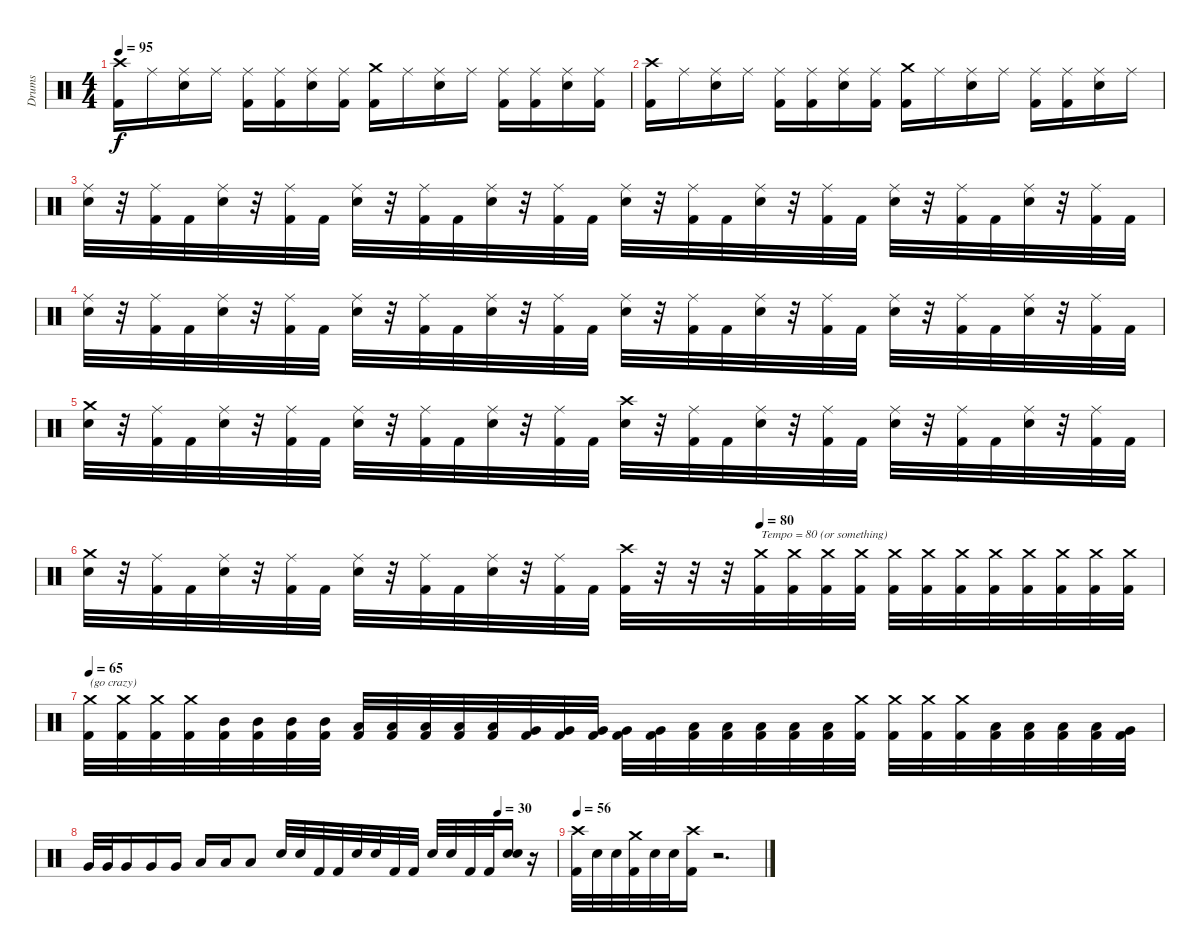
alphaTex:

\track ("Drums" "Drums") {instrument percussion}
\staff {score}
\articulation defaults
\ts (4 4)
\tempo 95
\clef neutral
\ks c
("Crash high (hit)" "Kick (hit) 2").16{dy f} "Ride (middle)".16 ("Ride (middle)" "Snare (hit) 2").16 "Ride (middle)".16 ("Ride (middle)" "Kick (hit) 2").16 ("Ride (middle)" "Kick (hit) 2").16 ("Ride (middle)" "Snare (hit) 2").16 ("Ride (middle)" "Kick (hit) 2").16 ("Crash medium (hit)" "Kick (hit) 2").16 "Ride (middle)".16 ("Ride (middle)" "Snare (hit) 2").16 "Ride (middle)".16 ("Ride (middle)" "Kick (hit) 2").16 ("Ride (middle)" "Kick (hit) 2").16 ("Ride (middle)" "Snare (hit) 2").16 ("Ride (middle)" "Kick (hit) 2").16 |
("Crash high (hit)" "Kick (hit) 2").16 "Ride (middle)".16 ("Ride (middle)" "Snare (hit) 2").16 "Ride (middle)".16 ("Ride (middle)" "Kick (hit) 2").16 ("Ride (middle)" "Kick (hit) 2").16 ("Ride (middle)" "Snare (hit) 2").16 ("Ride (middle)" "Kick (hit) 2").16 ("Crash medium (hit)" "Kick (hit) 2").16 "Ride (middle)".16 ("Ride (middle)" "Snare (hit) 2").16 "Ride (middle)".16 ("Ride (middle)" "Kick (hit) 2").16 ("Ride (middle)" "Kick (hit) 2").16 ("Ride (middle)" "Snare (hit) 2").16 "Ride (middle)".16 |
("Ride (middle)" "Snare (hit) 2").32 r.32 ("Ride (middle)" "Kick (hit) 2").32 "Kick (hit) 2".32 ("Ride (middle)" "Snare (hit) 2").32 r.32 ("Ride (middle)" "Kick (hit) 2").32 "Kick (hit) 2".32 ("Ride (middle)" "Snare (hit) 2").32 r.32 ("Ride (middle)" "Kick (hit) 2").32 "Kick (hit) 2".32 ("Ride (middle)" "Snare (hit) 2").32 r.32 ("Ride (middle)" "Kick (hit) 2").32 "Kick (hit) 2".32 ("Ride (middle)" "Snare (hit) 2").32 r.32 ("Ride (middle)" "Kick (hit) 2").32 "Kick (hit) 2".32 ("Ride (middle)" "Snare (hit) 2").32 r.32 ("Ride (middle)" "Kick (hit) 2").32 "Kick (hit) 2".32 ("Ride (middle)" "Snare (hit) 2").32 r.32 ("Ride (middle)" "Kick (hit) 2").32 "Kick (hit) 2".32 ("Ride (middle)" "Snare (hit) 2").32 r.32 ("Ride (middle)" "Kick (hit) 2").32 "Kick (hit) 2".32 |
("Ride (middle)" "Snare (hit) 2").32 r.32 ("Ride (middle)" "Kick (hit) 2").32 "Kick (hit) 2".32 ("Ride (middle)" "Snare (hit) 2").32 r.32 ("Ride (middle)" "Kick (hit) 2").32 "Kick (hit) 2".32 ("Ride (middle)" "Snare (hit) 2").32 r.32 ("Ride (middle)" "Kick (hit) 2").32 "Kick (hit) 2".32 ("Ride (middle)" "Snare (hit) 2").32 r.32 ("Ride (middle)" "Kick (hit) 2").32 "Kick (hit) 2".32 ("Ride (middle)" "Snare (hit) 2").32 r.32 ("Ride (middle)" "Kick (hit) 2").32 "Kick (hit) 2".32 ("Ride (middle)" "Snare (hit) 2").32 r.32 ("Ride (middle)" "Kick (hit) 2").32 "Kick (hit) 2".32 ("Ride (middle)" "Snare (hit) 2").32 r.32 ("Ride (middle)" "Kick (hit) 2").32 "Kick (hit) 2".32 ("Ride (middle)" "Snare (hit) 2").32 r.32 ("Ride (middle)" "Kick (hit) 2").32 "Kick (hit) 2".32 |
("Crash medium (hit)" "Snare (hit) 2").32 r.32 ("Ride (middle)" "Kick (hit) 2").32 "Kick (hit) 2".32 ("Ride (middle)" "Snare (hit) 2").32 r.32 ("Ride (middle)" "Kick (hit) 2").32 "Kick (hit) 2".32 ("Ride (middle)" "Snare (hit) 2").32 r.32 ("Ride (middle)" "Kick (hit) 2").32 "Kick (hit) 2".32 ("Ride (middle)" "Snare (hit) 2").32 r.32 ("Ride (middle)" "Kick (hit) 2").32 "Kick (hit) 2".32 ("Crash high (hit)" "Snare (hit) 2").32 r.32 ("Ride (middle)" "Kick (hit) 2").32 "Kick (hit) 2".32 ("Ride (middle)" "Snare (hit) 2").32 r.32 ("Ride (middle)" "Kick (hit) 2").32 "Kick (hit) 2".32 ("Ride (middle)" "Snare (hit) 2").32 r.32 ("Ride (middle)" "Kick (hit) 2").32 "Kick (hit) 2".32 ("Ride (middle)" "Snare (hit) 2").32 r.32 ("Ride (middle)" "Kick (hit) 2").32 "Kick (hit) 2".32 |
\tempo (80 0.625)
("Crash medium (hit)" "Snare (hit) 2").32 r.32 ("Ride (middle)" "Kick (hit) 2").32 "Kick (hit) 2".32 ("Ride (middle)" "Snare (hit) 2").32 r.32 ("Ride (middle)" "Kick (hit) 2").32 "Kick (hit) 2".32 ("Ride (middle)" "Snare (hit) 2").32 r.32 ("Ride (middle)" "Kick (hit) 2").32 "Kick (hit) 2".32 ("Ride (middle)" "Snare (hit) 2").32 r.32 ("Ride (middle)" "Kick (hit) 2").32 "Kick (hit) 2".32 ("Crash high (hit)" "Kick (hit) 2").32 r.32 r.32 r.32 ("Crash medium (hit)" "Kick (hit) 2").32{txt "Tempo = 80 (or something)"} ("Crash medium (hit)" "Kick (hit) 2").32 ("Crash medium (hit)" "Kick (hit) 2").32 ("Crash medium (hit)" "Kick (hit) 2").32 ("Crash medium (hit)" "Kick (hit) 2").32 ("Crash medium (hit)" "Kick (hit) 2").32 ("Crash medium (hit)" "Kick (hit) 2").32 ("Crash medium (hit)" "Kick (hit) 2").32 ("Crash medium (hit)" "Kick (hit) 2").32 ("Crash medium (hit)" "Kick (hit) 2").32 ("Crash medium (hit)" "Kick (hit) 2").32 ("Crash medium (hit)" "Kick (hit) 2").32 |
\tempo 65
("Crash medium (hit)" "Kick (hit) 2").32{txt "(go crazy)"} ("Crash medium (hit)" "Kick (hit) 2").32 ("Crash medium (hit)" "Kick (hit) 2").32 ("Crash medium (hit)" "Kick (hit) 2").32 ("Mid Tom (hit)" "Kick (hit) 2").32 ("Mid Tom (hit)" "Kick (hit) 2").32 ("Mid Tom (hit)" "Kick (hit) 2").32 ("Mid Tom (hit)" "Kick (hit) 2").32 ("Low Tom (hit)" "Kick (hit) 2").32 ("Low Tom (hit)" "Kick (hit) 2").32 ("Low Tom (hit)" "Kick (hit) 2").32 ("Low Tom (hit)" "Kick (hit) 2").32 ("Low Tom (hit)" "Kick (hit) 2").32 ("Very Low Tom (hit)" "Kick (hit) 2").32 ("Very Low Tom (hit)" "Kick (hit) 2").32 ("Very Low Tom (hit)" "Kick (hit) 2").32 ("Very Low Tom (hit)" "Kick (hit) 2").32 ("Very Low Tom (hit)" "Kick (hit) 2").32 ("Low Floor Tom (hit)" "Kick (hit) 2").32 ("Low Floor Tom (hit)" "Kick (hit) 2").32 ("Low Floor Tom (hit)" "Kick (hit) 2").32 ("Low Floor Tom (hit)" "Kick (hit) 2").32 ("Low Floor Tom (hit)" "Kick (hit) 2").32 ("Crash medium (hit)" "Kick (hit) 2").32 ("Crash medium (hit)" "Kick (hit) 2").32 ("Crash medium (hit)" "Kick (hit) 2").32 ("Crash medium (hit)" "Kick (hit) 2").32 ("Low Tom (hit)" "Kick (hit) 2").32 ("Low Tom (hit)" "Kick (hit) 2").32 ("Low Tom (hit)" "Kick (hit) 2").32 ("Low Tom (hit)" "Kick (hit) 2").32 ("Very Low Tom (hit)" "Kick (hit) 2").32 |
\tempo (30 0.875)
"Very Low Tom (hit)".32 "Very Low Tom (hit)".32 "Very Low Tom (hit)".16 "Very Low Tom (hit)".16 "Very Low Tom (hit)".16 "Low Floor Tom (hit)".16 "Low Floor Tom (hit)".16 "Low Floor Tom (hit)".8 "Snare (hit) 2".32 "Snare (hit) 2".32 "Kick (hit) 2".32 "Kick (hit) 2".32 "Snare (hit) 2".32 "Snare (hit) 2".32 "Kick (hit) 2".32 "Kick (hit) 2".32 "Snare (hit) 2".32 "Snare (hit) 2".32 "Kick (hit) 2".32 "Kick (hit) 2".32 ("Snare (hit) 2" "Snare (hit) 2").16{bd 60} r.16 |
\tempo 56
("Crash high (hit)" "Kick (hit) 2").32 "Snare (hit) 2".32 "Snare (hit) 2".32 ("Crash medium (hit)" "Kick (hit) 2").32 "Snare (hit) 2".32 "Snare (hit) 2".32 ("Crash high (hit)" "Kick (hit) 2").16 r.2{d}
